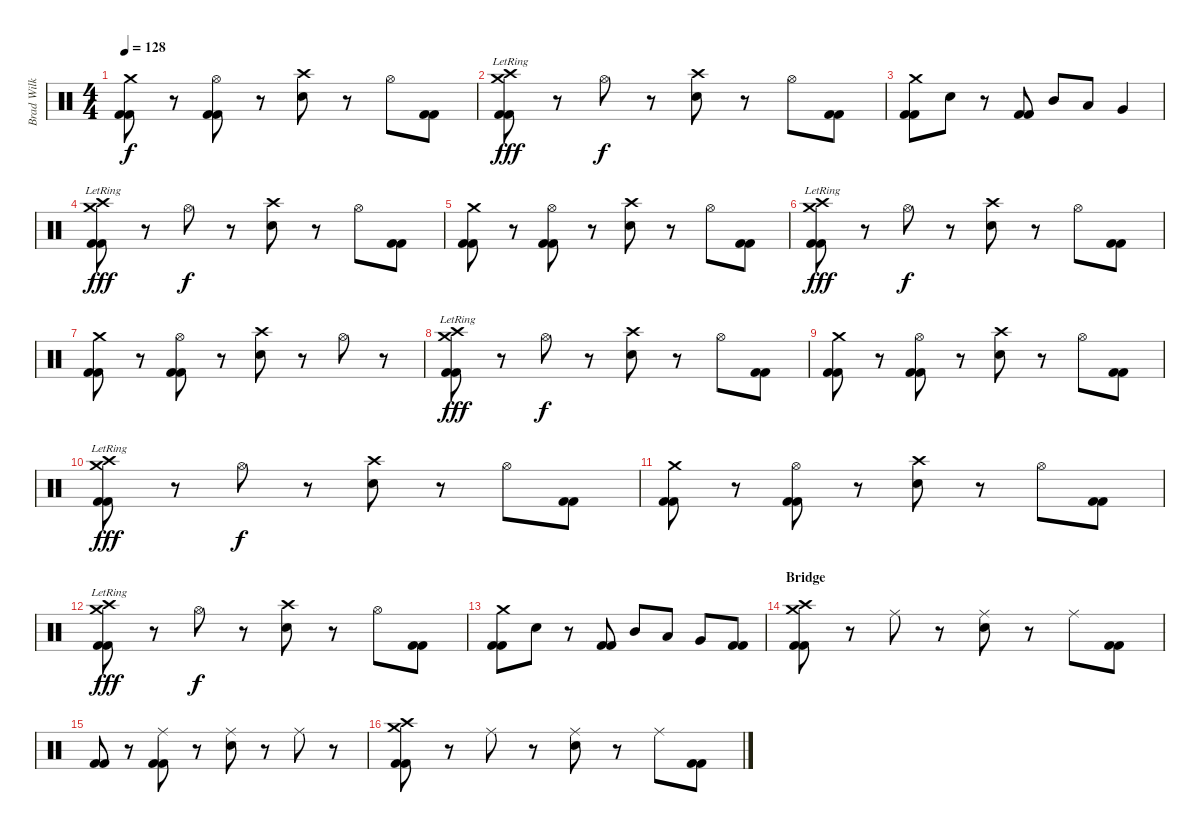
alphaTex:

\track ("Brad Wilk" "Brad Wilk") {instrument percussion}
\staff {score}
\articulation defaults
\ts (4 4)
\tempo 128
\clef neutral
\ks c
("Crash medium (hit)" "Kick (hit) 2" "Kick (hit) 2").8{dy f} r.8 ("Hi-Hat (open)" "Kick (hit) 2" "Kick (hit) 2").8 r.8 ("Crash high (hit)" "Electric Snare (hit)").8 r.8 "Hi-Hat (open)".8 ("Kick (hit) 2" "Kick (hit) 2").8 |
("Crash high (hit)"{lr} "Crash medium (hit)"{lr} "Kick (hit) 2" "Kick (hit) 2").8{dy fff} r.8 "Hi-Hat (open)".8{dy f} r.8 ("Crash high (hit)" "Electric Snare (hit)").8 r.8 "Hi-Hat (open)".8 ("Kick (hit) 2" "Kick (hit) 2").8 |
("Crash medium (hit)" "Kick (hit) 2" "Kick (hit) 2").8 "Electric Snare (hit)".8 r.8 ("Kick (hit) 2" "Kick (hit) 2").8 "Mid Tom (hit)".8 "Low Tom (hit)".8 "Very Low Tom (hit)".4 |
("Crash high (hit)"{lr} "Crash medium (hit)"{lr} "Kick (hit) 2" "Kick (hit) 2").8{dy fff} r.8 "Hi-Hat (open)".8{dy f} r.8 ("Crash high (hit)" "Electric Snare (hit)").8 r.8 "Hi-Hat (open)".8 ("Kick (hit) 2" "Kick (hit) 2").8 |
("Crash medium (hit)" "Kick (hit) 2" "Kick (hit) 2").8 r.8 ("Hi-Hat (open)" "Kick (hit) 2" "Kick (hit) 2").8 r.8 ("Crash high (hit)" "Electric Snare (hit)").8 r.8 "Hi-Hat (open)".8 ("Kick (hit) 2" "Kick (hit) 2").8 |
("Crash high (hit)"{lr} "Crash medium (hit)"{lr} "Kick (hit) 2" "Kick (hit) 2").8{dy fff} r.8 "Hi-Hat (open)".8{dy f} r.8 ("Crash high (hit)" "Electric Snare (hit)").8 r.8 "Hi-Hat (open)".8 ("Kick (hit) 2" "Kick (hit) 2").8 |
("Crash medium (hit)" "Kick (hit) 2" "Kick (hit) 2").8 r.8 ("Hi-Hat (open)" "Kick (hit) 2" "Kick (hit) 2").8 r.8 ("Crash high (hit)" "Electric Snare (hit)").8 r.8 "Hi-Hat (open)".8 r.8 |
("Crash high (hit)"{lr} "Crash medium (hit)"{lr} "Kick (hit) 2" "Kick (hit) 2").8{dy fff} r.8 "Hi-Hat (open)".8{dy f} r.8 ("Crash high (hit)" "Electric Snare (hit)").8 r.8 "Hi-Hat (open)".8 ("Kick (hit) 2" "Kick (hit) 2").8 |
("Crash medium (hit)" "Kick (hit) 2" "Kick (hit) 2").8 r.8 ("Hi-Hat (open)" "Kick (hit) 2" "Kick (hit) 2").8 r.8 ("Crash high (hit)" "Electric Snare (hit)").8 r.8 "Hi-Hat (open)".8 ("Kick (hit) 2" "Kick (hit) 2").8 |
("Crash high (hit)"{lr} "Crash medium (hit)"{lr} "Kick (hit) 2" "Kick (hit) 2").8{dy fff} r.8 "Hi-Hat (open)".8{dy f} r.8 ("Crash high (hit)" "Electric Snare (hit)").8 r.8 "Hi-Hat (open)".8 ("Kick (hit) 2" "Kick (hit) 2").8 |
("Crash medium (hit)" "Kick (hit) 2" "Kick (hit) 2").8 r.8 ("Hi-Hat (open)" "Kick (hit) 2" "Kick (hit) 2").8 r.8 ("Crash high (hit)" "Electric Snare (hit)").8 r.8 "Hi-Hat (open)".8 ("Kick (hit) 2" "Kick (hit) 2").8 |
("Crash high (hit)"{lr} "Crash medium (hit)"{lr} "Kick (hit) 2" "Kick (hit) 2").8{dy fff} r.8 "Hi-Hat (open)".8{dy f} r.8 ("Crash high (hit)" "Electric Snare (hit)").8 r.8 "Hi-Hat (open)".8 ("Kick (hit) 2" "Kick (hit) 2").8 |
("Crash medium (hit)" "Kick (hit) 2" "Kick (hit) 2").8 "Electric Snare (hit)".8 r.8 ("Kick (hit) 2" "Kick (hit) 2").8 "Mid Tom (hit)".8 "Low Tom (hit)".8 "Very Low Tom (hit)".8 ("Kick (hit) 2" "Kick (hit) 2").8 |
\section ("" "Bridge")
("Crash medium (hit)" "Crash high (hit)" "Kick (hit) 2" "Kick (hit) 2").8 r.8 "Ride (middle)".8 r.8 ("Ride (middle)" "Electric Snare (hit)").8 r.8 "Ride (middle)".8 ("Kick (hit) 2" "Kick (hit) 2").8 |
("Kick (hit) 2" "Kick (hit) 2").8 r.8 ("Ride (middle)" "Kick (hit) 2" "Kick (hit) 2").8 r.8 ("Ride (middle)" "Electric Snare (hit)").8 r.8 "Ride (middle)".8 r.8 |
("Crash medium (hit)" "Crash high (hit)" "Kick (hit) 2" "Kick (hit) 2").8 r.8 "Ride (middle)".8 r.8 ("Ride (middle)" "Electric Snare (hit)").8 r.8 "Ride (middle)".8 ("Kick (hit) 2" "Kick (hit) 2").8
